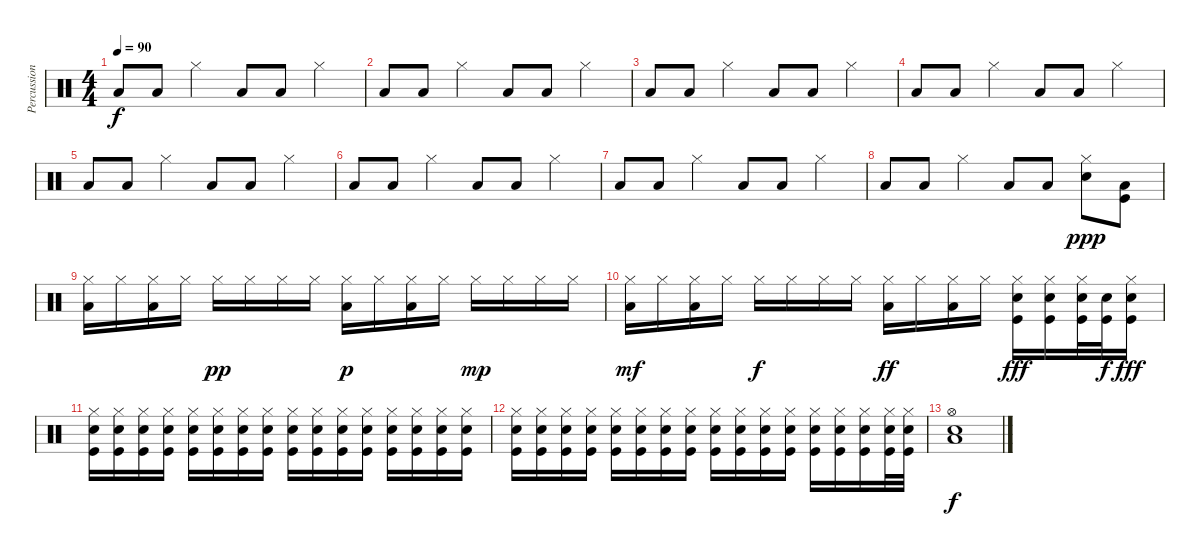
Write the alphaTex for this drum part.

\track ("Percussions" "Percussion") {instrument percussion}
\staff {score}
\articulation defaults
\ts (4 4)
\tempo 90
\clef neutral
\ks c "Low Floor Tom (hit)".8{dy f} "Low Floor Tom (hit)".8 "Hi-Hat (closed)".4 "Low Floor Tom (hit)".8 "Low Floor Tom (hit)".8 "Hi-Hat (closed)".4
|
"Low Floor Tom (hit)".8 "Low Floor Tom (hit)".8 "Hi-Hat (closed)".4 "Low Floor Tom (hit)".8 "Low Floor Tom (hit)".8 "Hi-Hat (closed)".4 |
"Low Floor Tom (hit)".8 "Low Floor Tom (hit)".8 "Hi-Hat (closed)".4 "Low Floor Tom (hit)".8 "Low Floor Tom (hit)".8 "Hi-Hat (closed)".4 |
"Low Floor Tom (hit)".8 "Low Floor Tom (hit)".8 "Hi-Hat (closed)".4 "Low Floor Tom (hit)".8 "Low Floor Tom (hit)".8 "Hi-Hat (closed)".4 |
"Low Floor Tom (hit)".8 "Low Floor Tom (hit)".8 "Hi-Hat (closed)".4 "Low Floor Tom (hit)".8 "Low Floor Tom (hit)".8 "Hi-Hat (closed)".4 |
"Low Floor Tom (hit)".8 "Low Floor Tom (hit)".8 "Hi-Hat (closed)".4 "Low Floor Tom (hit)".8 "Low Floor Tom (hit)".8 "Hi-Hat (closed)".4 |
"Low Floor Tom (hit)".8 "Low Floor Tom (hit)".8 "Hi-Hat (closed)".4 "Low Floor Tom (hit)".8 "Low Floor Tom (hit)".8 "Hi-Hat (closed)".4 |
"Low Floor Tom (hit)".8 "Low Floor Tom (hit)".8 "Hi-Hat (closed)".4 "Low Floor Tom (hit)".8 "Low Floor Tom (hit)".8 ("Hi-Hat (closed)" "Snare (hit) 2").8{dy ppp} ("Low Floor Tom (hit)" "Kick (hit)").8 |
("Low Floor Tom (hit)" "Hi-Hat (closed)").16 "Hi-Hat (closed)".16 ("Low Floor Tom (hit)" "Hi-Hat (closed)").16 "Hi-Hat (closed)".16 "Hi-Hat (closed)".16{dy pp} "Hi-Hat (closed)".16 "Hi-Hat (closed)".16 "Hi-Hat (closed)".16 ("Low Floor Tom (hit)" "Hi-Hat (closed)").16{dy p} "Hi-Hat (closed)".16 ("Low Floor Tom (hit)" "Hi-Hat (closed)").16 "Hi-Hat (closed)".16 "Hi-Hat (closed)".16{dy mp} "Hi-Hat (closed)".16 "Hi-Hat (closed)".16 "Hi-Hat (closed)".16 |
("Low Floor Tom (hit)" "Hi-Hat (closed)").16{dy mf} "Hi-Hat (closed)".16 ("Low Floor Tom (hit)" "Hi-Hat (closed)").16 "Hi-Hat (closed)".16 "Hi-Hat (closed)".16{dy f} "Hi-Hat (closed)".16 "Hi-Hat (closed)".16 "Hi-Hat (closed)".16 ("Low Floor Tom (hit)" "Hi-Hat (closed)").16{dy ff} "Hi-Hat (closed)".16 ("Low Floor Tom (hit)" "Hi-Hat (closed)").16 "Hi-Hat (closed)".16 ("Snare (hit) 2" "Kick (hit)" "Hi-Hat (closed)").16{dy fff} ("Hi-Hat (closed)" "Snare (hit) 2" "Kick (hit)").16 ("Hi-Hat (closed)" "Snare (hit) 2" "Kick (hit)").32 ("Snare (hit) 2" "Kick (hit)").32{dy f} ("Hi-Hat (closed)" "Snare (hit) 2" "Kick (hit)").16{dy fff} |
("Hi-Hat (closed)" "Snare (hit) 2" "Kick (hit)").16 ("Hi-Hat (closed)" "Snare (hit) 2" "Kick (hit)").16 ("Hi-Hat (closed)" "Snare (hit) 2" "Kick (hit)").16 ("Hi-Hat (closed)" "Snare (hit) 2" "Kick (hit)").16 ("Hi-Hat (closed)" "Snare (hit) 2" "Kick (hit)").16 ("Hi-Hat (closed)" "Snare (hit) 2" "Kick (hit)").16 ("Hi-Hat (closed)" "Snare (hit) 2" "Kick (hit)").16 ("Hi-Hat (closed)" "Snare (hit) 2" "Kick (hit)").16 ("Hi-Hat (closed)" "Snare (hit) 2" "Kick (hit)").16 ("Hi-Hat (closed)" "Snare (hit) 2" "Kick (hit)").16 ("Hi-Hat (closed)" "Snare (hit) 2" "Kick (hit)").16 ("Hi-Hat (closed)" "Snare (hit) 2" "Kick (hit)").16 ("Hi-Hat (closed)" "Snare (hit) 2" "Kick (hit)").16 ("Hi-Hat (closed)" "Snare (hit) 2" "Kick (hit)").16 ("Hi-Hat (closed)" "Snare (hit) 2" "Kick (hit)").16 ("Hi-Hat (closed)" "Snare (hit) 2" "Kick (hit)").16 |
("Hi-Hat (closed)" "Snare (hit) 2" "Kick (hit)").16 ("Hi-Hat (closed)" "Snare (hit) 2" "Kick (hit)").16 ("Hi-Hat (closed)" "Snare (hit) 2" "Kick (hit)").16 ("Hi-Hat (closed)" "Snare (hit) 2" "Kick (hit)").16 ("Hi-Hat (closed)" "Snare (hit) 2" "Kick (hit)").16 ("Hi-Hat (closed)" "Snare (hit) 2" "Kick (hit)").16 ("Hi-Hat (closed)" "Snare (hit) 2" "Kick (hit)").16 ("Hi-Hat (closed)" "Snare (hit) 2" "Kick (hit)").16 ("Hi-Hat (closed)" "Snare (hit) 2" "Kick (hit)").16 ("Hi-Hat (closed)" "Snare (hit) 2" "Kick (hit)").16 ("Hi-Hat (closed)" "Snare (hit) 2" "Kick (hit)").16 ("Hi-Hat (closed)" "Snare (hit) 2" "Kick (hit)").16 ("Hi-Hat (closed)" "Snare (hit) 2" "Kick (hit)").16 ("Hi-Hat (closed)" "Snare (hit) 2" "Kick (hit)").16 ("Hi-Hat (closed)" "Snare (hit) 2" "Kick (hit)").16 ("Hi-Hat (closed)" "Snare (hit) 2" "Kick (hit)").32 ("Hi-Hat (closed)" "Snare (hit) 2" "Kick (hit)").32 |
("Snare (hit) 2" "Low Floor Tom (hit)" "Hi-Hat (open)").1{dy f}
